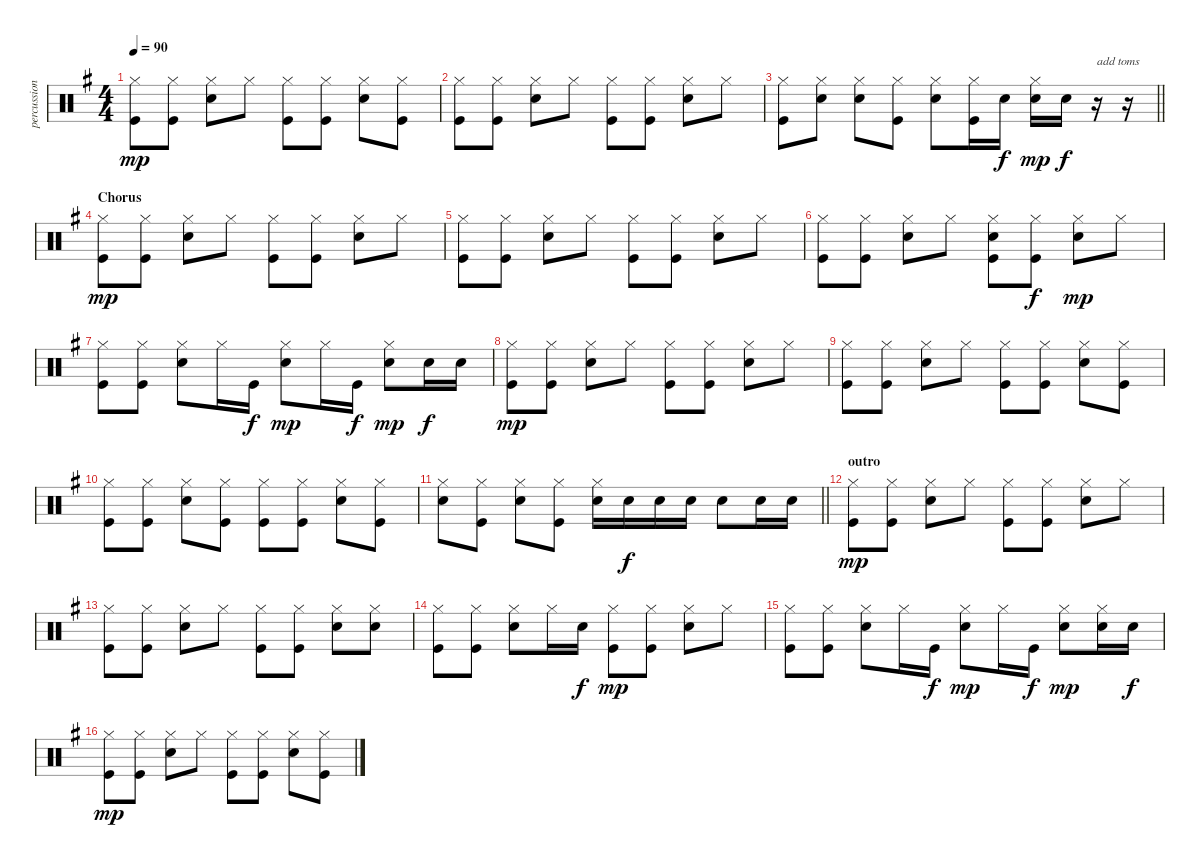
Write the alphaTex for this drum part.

\track ("percussion" "percussion") {instrument percussion}
\staff {score}
\articulation defaults
\ts (4 4)
\tempo 90
\clef neutral
\ks g
("Hi-Hat (closed)" "Kick (hit)").8{dy mp} ("Hi-Hat (closed)" "Kick (hit)").8 ("Electric Snare (hit)" "Hi-Hat (closed)").8 "Hi-Hat (closed)".8 ("Hi-Hat (closed)" "Kick (hit)").8 ("Hi-Hat (closed)" "Kick (hit)").8 ("Electric Snare (hit)" "Hi-Hat (closed)").8 ("Hi-Hat (closed)" "Kick (hit)").8 |
("Hi-Hat (closed)" "Kick (hit)").8 ("Hi-Hat (closed)" "Kick (hit)").8 ("Electric Snare (hit)" "Hi-Hat (closed)").8 "Hi-Hat (closed)".8 ("Hi-Hat (closed)" "Kick (hit)").8 ("Hi-Hat (closed)" "Kick (hit)").8 ("Electric Snare (hit)" "Hi-Hat (closed)").8 "Hi-Hat (closed)".8 |
\barLineRight lightlight
("Hi-Hat (closed)" "Kick (hit)").8 ("Electric Snare (hit)" "Hi-Hat (closed)").8 ("Electric Snare (hit)" "Hi-Hat (closed)").8 ("Hi-Hat (closed)" "Kick (hit)").8 ("Electric Snare (hit)" "Hi-Hat (closed)").8 ("Hi-Hat (closed)" "Kick (hit)").16 "Electric Snare (hit)".16{dy f} ("Electric Snare (hit)" "Hi-Hat (closed)").16{dy mp} "Electric Snare (hit)".16{dy f} r.16{txt "add toms"} r.16 |
\section ("" "Chorus")
("Hi-Hat (closed)" "Kick (hit)").8{dy mp} ("Hi-Hat (closed)" "Kick (hit)").8 ("Electric Snare (hit)" "Hi-Hat (closed)").8 "Hi-Hat (closed)".8 ("Hi-Hat (closed)" "Kick (hit)").8 ("Hi-Hat (closed)" "Kick (hit)").8 ("Electric Snare (hit)" "Hi-Hat (closed)").8 "Hi-Hat (closed)".8 |
("Hi-Hat (closed)" "Kick (hit)").8 ("Hi-Hat (closed)" "Kick (hit)").8 ("Electric Snare (hit)" "Hi-Hat (closed)").8 "Hi-Hat (closed)".8 ("Hi-Hat (closed)" "Kick (hit)").8 ("Hi-Hat (closed)" "Kick (hit)").8 ("Electric Snare (hit)" "Hi-Hat (closed)").8 "Hi-Hat (closed)".8 |
("Hi-Hat (closed)" "Kick (hit)").8 ("Hi-Hat (closed)" "Kick (hit)").8 ("Electric Snare (hit)" "Hi-Hat (closed)").8 "Hi-Hat (closed)".8 ("Electric Snare (hit)" "Hi-Hat (closed)" "Kick (hit)").8 ("Hi-Hat (closed)" "Kick (hit)").8{dy f} ("Electric Snare (hit)" "Hi-Hat (closed)").8{dy mp} "Hi-Hat (closed)".8 |
("Hi-Hat (closed)" "Kick (hit)").8 ("Hi-Hat (closed)" "Kick (hit)").8 ("Electric Snare (hit)" "Hi-Hat (closed)").8 "Hi-Hat (closed)".16 "Kick (hit)".16{dy f} ("Electric Snare (hit)" "Hi-Hat (closed)").8{dy mp} "Hi-Hat (closed)".16 "Kick (hit)".16{dy f} ("Electric Snare (hit)" "Hi-Hat (closed)").8{dy mp} "Electric Snare (hit)".16{dy f} "Electric Snare (hit)".16 |
("Hi-Hat (closed)" "Kick (hit)").8{dy mp} ("Hi-Hat (closed)" "Kick (hit)").8 ("Electric Snare (hit)" "Hi-Hat (closed)").8 "Hi-Hat (closed)".8 ("Hi-Hat (closed)" "Kick (hit)").8 ("Hi-Hat (closed)" "Kick (hit)").8 ("Electric Snare (hit)" "Hi-Hat (closed)").8 "Hi-Hat (closed)".8 |
("Hi-Hat (closed)" "Kick (hit)").8 ("Hi-Hat (closed)" "Kick (hit)").8 ("Electric Snare (hit)" "Hi-Hat (closed)").8 "Hi-Hat (closed)".8 ("Hi-Hat (closed)" "Kick (hit)").8 ("Hi-Hat (closed)" "Kick (hit)").8 ("Electric Snare (hit)" "Hi-Hat (closed)").8 ("Hi-Hat (closed)" "Kick (hit)").8 |
("Hi-Hat (closed)" "Kick (hit)").8 ("Hi-Hat (closed)" "Kick (hit)").8 ("Electric Snare (hit)" "Hi-Hat (closed)").8 ("Hi-Hat (closed)" "Kick (hit)").8 ("Hi-Hat (closed)" "Kick (hit)").8 ("Hi-Hat (closed)" "Kick (hit)").8 ("Electric Snare (hit)" "Hi-Hat (closed)").8 ("Hi-Hat (closed)" "Kick (hit)").8 |
\barLineRight lightlight
("Electric Snare (hit)" "Hi-Hat (closed)").8 ("Hi-Hat (closed)" "Kick (hit)").8 ("Electric Snare (hit)" "Hi-Hat (closed)").8 ("Hi-Hat (closed)" "Kick (hit)").8 ("Electric Snare (hit)" "Hi-Hat (closed)").16 "Electric Snare (hit)".16{dy f} "Electric Snare (hit)".16 "Electric Snare (hit)".16 "Electric Snare (hit)".8 "Electric Snare (hit)".16 "Electric Snare (hit)".16 |
\section ("" "outro")
("Hi-Hat (closed)" "Kick (hit)").8{dy mp} ("Hi-Hat (closed)" "Kick (hit)").8 ("Electric Snare (hit)" "Hi-Hat (closed)").8 "Hi-Hat (closed)".8 ("Hi-Hat (closed)" "Kick (hit)").8 ("Hi-Hat (closed)" "Kick (hit)").8 ("Electric Snare (hit)" "Hi-Hat (closed)").8 "Hi-Hat (closed)".8 |
("Hi-Hat (closed)" "Kick (hit)").8 ("Hi-Hat (closed)" "Kick (hit)").8 ("Electric Snare (hit)" "Hi-Hat (closed)").8 "Hi-Hat (closed)".8 ("Hi-Hat (closed)" "Kick (hit)").8 ("Hi-Hat (closed)" "Kick (hit)").8 ("Electric Snare (hit)" "Hi-Hat (closed)").8 ("Electric Snare (hit)" "Hi-Hat (closed)").8 |
("Hi-Hat (closed)" "Kick (hit)").8 ("Hi-Hat (closed)" "Kick (hit)").8 ("Electric Snare (hit)" "Hi-Hat (closed)").8 "Hi-Hat (closed)".16 "Electric Snare (hit)".16{dy f} ("Hi-Hat (closed)" "Kick (hit)").8{dy mp} ("Hi-Hat (closed)" "Kick (hit)").8 ("Electric Snare (hit)" "Hi-Hat (closed)").8 "Hi-Hat (closed)".8 |
("Hi-Hat (closed)" "Kick (hit)").8 ("Hi-Hat (closed)" "Kick (hit)").8 ("Electric Snare (hit)" "Hi-Hat (closed)").8 "Hi-Hat (closed)".16 "Kick (hit)".16{dy f} ("Electric Snare (hit)" "Hi-Hat (closed)").8{dy mp} "Hi-Hat (closed)".16 "Kick (hit)".16{dy f} ("Electric Snare (hit)" "Hi-Hat (closed)").8{dy mp} ("Electric Snare (hit)" "Hi-Hat (closed)").16 "Electric Snare (hit)".16{dy f} |
("Hi-Hat (closed)" "Kick (hit)").8{dy mp} ("Hi-Hat (closed)" "Kick (hit)").8 ("Electric Snare (hit)" "Hi-Hat (closed)").8 "Hi-Hat (closed)".8 ("Hi-Hat (closed)" "Kick (hit)").8 ("Hi-Hat (closed)" "Kick (hit)").8 ("Electric Snare (hit)" "Hi-Hat (closed)").8 ("Hi-Hat (closed)" "Kick (hit)").8
